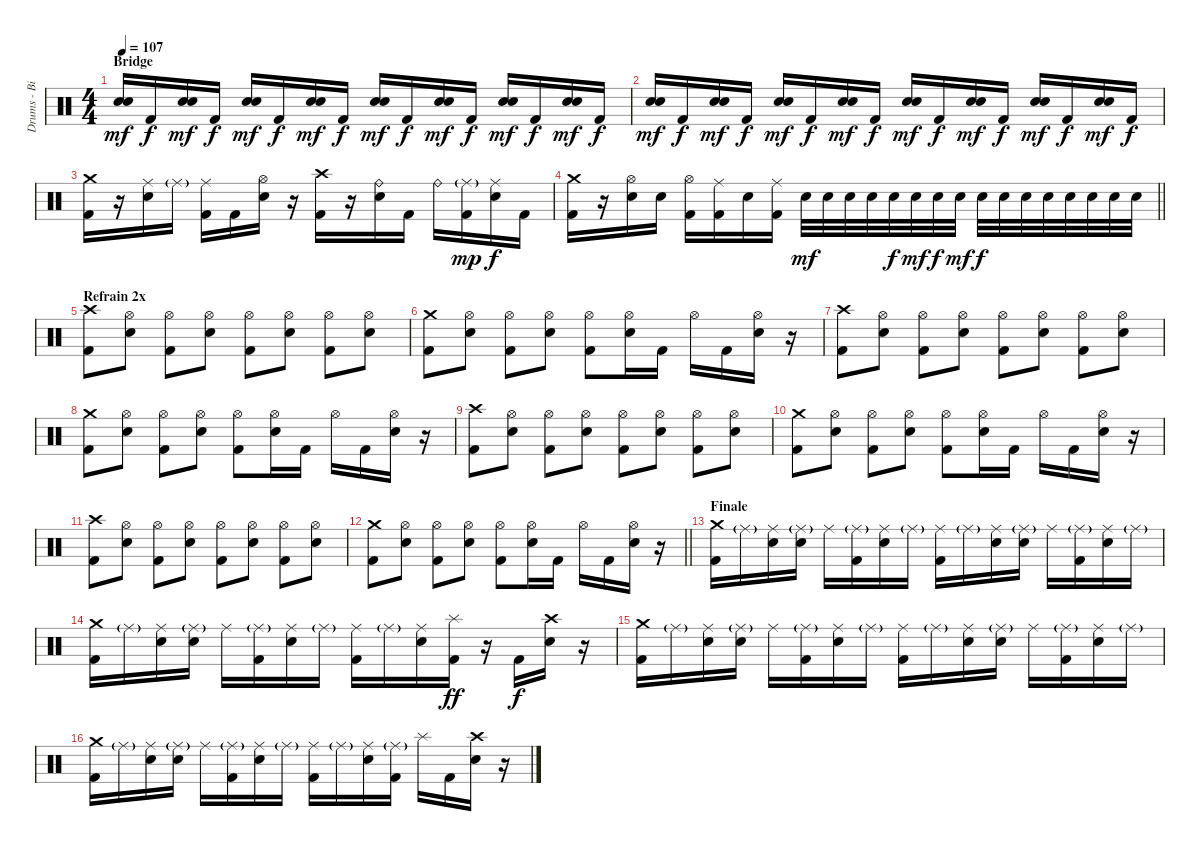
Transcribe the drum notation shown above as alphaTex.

\track ("Drums - Bill Stevenson" "Drums - Bi") {instrument percussion}
\staff {score}
\articulation defaults
\ts (4 4)
\section ("" "Bridge")
\tempo 107
\clef neutral
\ks c
("Electric Snare (hit)" "Electric Snare (hit)").16{dy mf} "Kick (hit) 2".16{dy f} ("Electric Snare (hit)" "Electric Snare (hit)").16{dy mf} "Kick (hit) 2".16{dy f} ("Electric Snare (hit)" "Electric Snare (hit)").16{dy mf} "Kick (hit) 2".16{dy f} ("Electric Snare (hit)" "Electric Snare (hit)").16{dy mf} "Kick (hit) 2".16{dy f} ("Electric Snare (hit)" "Electric Snare (hit)").16{dy mf} "Kick (hit) 2".16{dy f} ("Electric Snare (hit)" "Electric Snare (hit)").16{dy mf} "Kick (hit) 2".16{dy f} ("Electric Snare (hit)" "Electric Snare (hit)").16{dy mf} "Kick (hit) 2".16{dy f} ("Electric Snare (hit)" "Electric Snare (hit)").16{dy mf} "Kick (hit) 2".16{dy f} |
("Electric Snare (hit)" "Electric Snare (hit)").16{dy mf} "Kick (hit) 2".16{dy f} ("Electric Snare (hit)" "Electric Snare (hit)").16{dy mf} "Kick (hit) 2".16{dy f} ("Electric Snare (hit)" "Electric Snare (hit)").16{dy mf} "Kick (hit) 2".16{dy f} ("Electric Snare (hit)" "Electric Snare (hit)").16{dy mf} "Kick (hit) 2".16{dy f} ("Electric Snare (hit)" "Electric Snare (hit)").16{dy mf} "Kick (hit) 2".16{dy f} ("Electric Snare (hit)" "Electric Snare (hit)").16{dy mf} "Kick (hit) 2".16{dy f} ("Electric Snare (hit)" "Electric Snare (hit)").16{dy mf} "Kick (hit) 2".16{dy f} ("Electric Snare (hit)" "Electric Snare (hit)").16{dy mf} "Kick (hit) 2".16{dy f} |
("Crash medium (hit)" "Kick (hit) 2").16 r.16 ("Ride (middle)" "Electric Snare (hit)").16 "Ride (middle)"{g}.16 ("Ride (middle)" "Kick (hit) 2").16 "Kick (hit) 2".16 ("Hi-Hat (open)" "Electric Snare (hit)").16 r.16 ("Crash high (hit)" "Kick (hit) 2").16 r.16 ("Ride (bell)" "Electric Snare (hit)").16 "Kick (hit) 2".16 "Ride (bell)".16 ("Ride (middle)"{g} "Kick (hit) 2").16{dy mp} ("Ride (middle)" "Electric Snare (hit)").16{dy f} "Kick (hit) 2".16 |
\barLineRight lightlight
("Crash medium (hit)" "Kick (hit) 2").16 r.16 ("Hi-Hat (open)" "Electric Snare (hit)").16 "Electric Snare (hit)".16 ("Hi-Hat (open)" "Kick (hit) 2").16 ("Ride (middle)" "Kick (hit) 2").16 "Electric Snare (hit)".16 ("Ride (middle)" "Kick (hit) 2").16 "Electric Snare (hit)".32{dy mf} "Electric Snare (hit)".32 "Electric Snare (hit)".32 "Electric Snare (hit)".32 "Electric Snare (hit)".32{dy f} "Electric Snare (hit)".32{dy mf} "Electric Snare (hit)".32{dy f} "Electric Snare (hit)".32{dy mf} "Electric Snare (hit)".32{dy f} "Electric Snare (hit)".32 "Electric Snare (hit)".32 "Electric Snare (hit)".32 "Electric Snare (hit)".32 "Electric Snare (hit)".32 "Electric Snare (hit)".32 "Electric Snare (hit)".32 |
\section ("" "Refrain 2x")
("Crash high (hit)" "Kick (hit) 2").8 ("Hi-Hat (open)" "Electric Snare (hit)").8 ("Hi-Hat (open)" "Kick (hit) 2").8 ("Hi-Hat (open)" "Electric Snare (hit)").8 ("Hi-Hat (open)" "Kick (hit) 2").8 ("Hi-Hat (open)" "Electric Snare (hit)").8 ("Hi-Hat (open)" "Kick (hit) 2").8 ("Hi-Hat (open)" "Electric Snare (hit)").8 |
("Crash medium (hit)" "Kick (hit) 2").8 ("Hi-Hat (open)" "Electric Snare (hit)").8 ("Hi-Hat (open)" "Kick (hit) 2").8 ("Hi-Hat (open)" "Electric Snare (hit)").8 ("Hi-Hat (open)" "Kick (hit) 2").8 ("Hi-Hat (open)" "Electric Snare (hit)").16 "Kick (hit) 2".16 "Hi-Hat (open)".16 "Kick (hit) 2".16 ("Hi-Hat (open)" "Electric Snare (hit)").16 r.16 |
("Crash high (hit)" "Kick (hit) 2").8 ("Hi-Hat (open)" "Electric Snare (hit)").8 ("Hi-Hat (open)" "Kick (hit) 2").8 ("Hi-Hat (open)" "Electric Snare (hit)").8 ("Hi-Hat (open)" "Kick (hit) 2").8 ("Hi-Hat (open)" "Electric Snare (hit)").8 ("Hi-Hat (open)" "Kick (hit) 2").8 ("Hi-Hat (open)" "Electric Snare (hit)").8 |
("Crash medium (hit)" "Kick (hit) 2").8 ("Hi-Hat (open)" "Electric Snare (hit)").8 ("Hi-Hat (open)" "Kick (hit) 2").8 ("Hi-Hat (open)" "Electric Snare (hit)").8 ("Hi-Hat (open)" "Kick (hit) 2").8 ("Hi-Hat (open)" "Electric Snare (hit)").16 "Kick (hit) 2".16 "Hi-Hat (open)".16 "Kick (hit) 2".16 ("Hi-Hat (open)" "Electric Snare (hit)").16 r.16 |
("Crash high (hit)" "Kick (hit) 2").8 ("Hi-Hat (open)" "Electric Snare (hit)").8 ("Hi-Hat (open)" "Kick (hit) 2").8 ("Hi-Hat (open)" "Electric Snare (hit)").8 ("Hi-Hat (open)" "Kick (hit) 2").8 ("Hi-Hat (open)" "Electric Snare (hit)").8 ("Hi-Hat (open)" "Kick (hit) 2").8 ("Hi-Hat (open)" "Electric Snare (hit)").8 |
("Crash medium (hit)" "Kick (hit) 2").8 ("Hi-Hat (open)" "Electric Snare (hit)").8 ("Hi-Hat (open)" "Kick (hit) 2").8 ("Hi-Hat (open)" "Electric Snare (hit)").8 ("Hi-Hat (open)" "Kick (hit) 2").8 ("Hi-Hat (open)" "Electric Snare (hit)").16 "Kick (hit) 2".16 "Hi-Hat (open)".16 "Kick (hit) 2".16 ("Hi-Hat (open)" "Electric Snare (hit)").16 r.16 |
("Crash high (hit)" "Kick (hit) 2").8 ("Hi-Hat (open)" "Electric Snare (hit)").8 ("Hi-Hat (open)" "Kick (hit) 2").8 ("Hi-Hat (open)" "Electric Snare (hit)").8 ("Hi-Hat (open)" "Kick (hit) 2").8 ("Hi-Hat (open)" "Electric Snare (hit)").8 ("Hi-Hat (open)" "Kick (hit) 2").8 ("Hi-Hat (open)" "Electric Snare (hit)").8 |
\barLineRight lightlight
("Crash medium (hit)" "Kick (hit) 2").8 ("Hi-Hat (open)" "Electric Snare (hit)").8 ("Hi-Hat (open)" "Kick (hit) 2").8 ("Hi-Hat (open)" "Electric Snare (hit)").8 ("Hi-Hat (open)" "Kick (hit) 2").8 ("Hi-Hat (open)" "Electric Snare (hit)").16 "Kick (hit) 2".16 "Hi-Hat (open)".16 "Kick (hit) 2".16 ("Hi-Hat (open)" "Electric Snare (hit)").16 r.16 |
\section ("" "Finale")
("Crash medium (hit)" "Kick (hit) 2").16 "Ride (middle)"{g}.16 ("Ride (middle)" "Electric Snare (hit)").16 ("Ride (middle)"{g} "Electric Snare (hit)").16 "Ride (middle)".16 ("Ride (middle)"{g} "Kick (hit) 2").16 ("Ride (middle)" "Electric Snare (hit)").16 "Ride (middle)"{g}.16 ("Ride (middle)" "Kick (hit) 2").16 "Ride (middle)"{g}.16 ("Ride (middle)" "Electric Snare (hit)").16 ("Ride (middle)"{g} "Electric Snare (hit)").16 "Ride (middle)".16 ("Ride (middle)"{g} "Kick (hit) 2").16 ("Ride (middle)" "Electric Snare (hit)").16 "Ride (middle)"{g}.16 |
("Crash medium (hit)" "Kick (hit) 2").16 "Ride (middle)"{g}.16 ("Ride (middle)" "Electric Snare (hit)").16 ("Ride (middle)"{g} "Electric Snare (hit)").16 "Ride (middle)".16 ("Ride (middle)"{g} "Kick (hit) 2").16 ("Ride (middle)" "Electric Snare (hit)").16 "Ride (middle)"{g}.16 ("Ride (middle)" "Kick (hit) 2").16 "Ride (middle)"{g}.16 ("Ride (middle)" "Electric Snare (hit)").16 ("Splash (hit)" "Kick (hit) 2").16{dy ff} r.16 "Kick (hit) 2".16{dy f} ("Crash high (hit)" "Electric Snare (hit)").16 r.16 |
("Crash medium (hit)" "Kick (hit) 2").16 "Ride (middle)"{g}.16 ("Ride (middle)" "Electric Snare (hit)").16 ("Ride (middle)"{g} "Electric Snare (hit)").16 "Ride (middle)".16 ("Ride (middle)"{g} "Kick (hit) 2").16 ("Ride (middle)" "Electric Snare (hit)").16 "Ride (middle)"{g}.16 ("Ride (middle)" "Kick (hit) 2").16 "Ride (middle)"{g}.16 ("Ride (middle)" "Electric Snare (hit)").16 ("Ride (middle)"{g} "Electric Snare (hit)").16 "Ride (middle)".16 ("Ride (middle)"{g} "Kick (hit) 2").16 ("Ride (middle)" "Electric Snare (hit)").16 "Ride (middle)"{g}.16 |
("Crash medium (hit)" "Kick (hit) 2").16 "Ride (middle)"{g}.16 ("Ride (middle)" "Electric Snare (hit)").16 ("Ride (middle)"{g} "Electric Snare (hit)").16 "Ride (middle)".16 ("Ride (middle)"{g} "Kick (hit) 2").16 ("Ride (middle)" "Electric Snare (hit)").16 "Ride (middle)"{g}.16 ("Ride (middle)" "Kick (hit) 2").16 "Ride (middle)"{g}.16 ("Ride (middle)" "Electric Snare (hit)").16 ("Ride (middle)"{g} "Kick (hit) 2").16 "Splash (hit)".16 "Kick (hit) 2".16 ("Crash high (hit)" "Electric Snare (hit)").16 r.16
